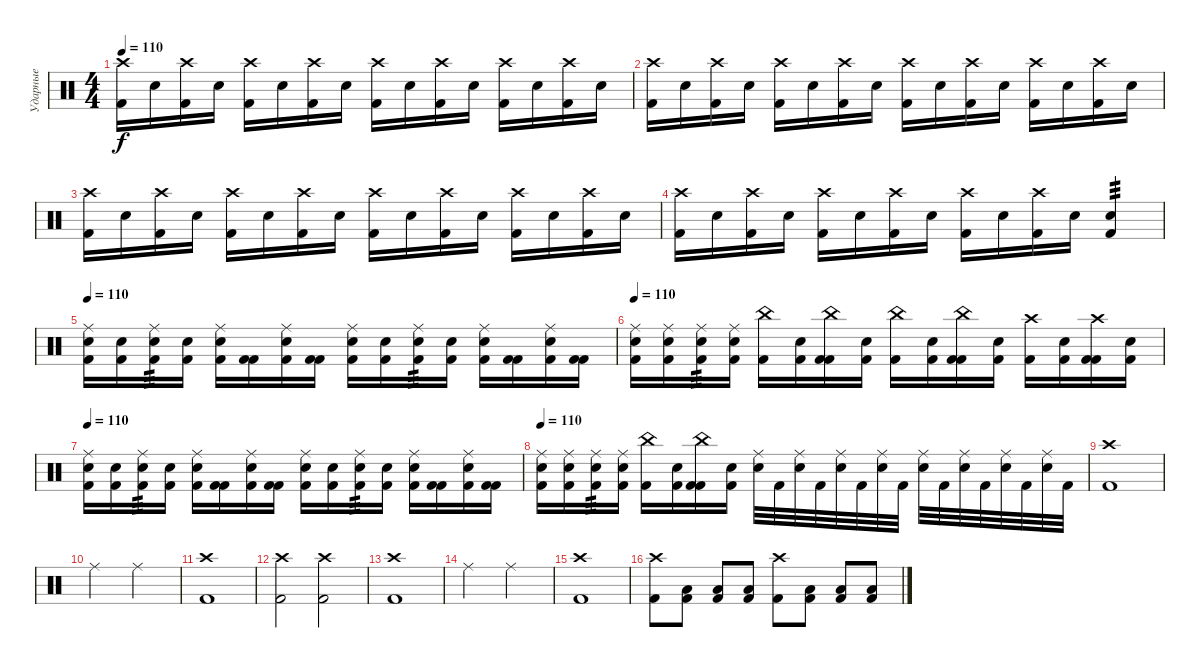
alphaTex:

\track ("Ударные" "Ударные") {instrument percussion}
\staff {score}
\articulation defaults
\ts (4 4)
\tempo 110
\clef neutral
\ks c
("Kick (hit) 2" "Crash high (hit)").16{dy f} "Snare (hit) 2".16 ("Kick (hit) 2" "Crash high (hit)").16 "Snare (hit) 2".16 ("Kick (hit) 2" "Crash high (hit)").16 "Snare (hit) 2".16 ("Kick (hit) 2" "Crash high (hit)").16 "Snare (hit) 2".16 ("Kick (hit) 2" "Crash high (hit)").16 "Snare (hit) 2".16 ("Kick (hit) 2" "Crash high (hit)").16 "Snare (hit) 2".16 ("Kick (hit) 2" "Crash high (hit)").16 "Snare (hit) 2".16 ("Kick (hit) 2" "Crash high (hit)").16 "Snare (hit) 2".16 |
("Kick (hit) 2" "Crash high (hit)").16 "Snare (hit) 2".16 ("Kick (hit) 2" "Crash high (hit)").16 "Snare (hit) 2".16 ("Kick (hit) 2" "Crash high (hit)").16 "Snare (hit) 2".16 ("Kick (hit) 2" "Crash high (hit)").16 "Snare (hit) 2".16 ("Kick (hit) 2" "Crash high (hit)").16 "Snare (hit) 2".16 ("Kick (hit) 2" "Crash high (hit)").16 "Snare (hit) 2".16 ("Kick (hit) 2" "Crash high (hit)").16 "Snare (hit) 2".16 ("Kick (hit) 2" "Crash high (hit)").16 "Snare (hit) 2".16 |
("Kick (hit) 2" "Crash high (hit)").16 "Snare (hit) 2".16 ("Kick (hit) 2" "Crash high (hit)").16 "Snare (hit) 2".16 ("Kick (hit) 2" "Crash high (hit)").16 "Snare (hit) 2".16 ("Kick (hit) 2" "Crash high (hit)").16 "Snare (hit) 2".16 ("Kick (hit) 2" "Crash high (hit)").16 "Snare (hit) 2".16 ("Kick (hit) 2" "Crash high (hit)").16 "Snare (hit) 2".16 ("Kick (hit) 2" "Crash high (hit)").16 "Snare (hit) 2".16 ("Kick (hit) 2" "Crash high (hit)").16 "Snare (hit) 2".16 |
("Kick (hit) 2" "Crash high (hit)").16 "Snare (hit) 2".16 ("Kick (hit) 2" "Crash high (hit)").16 "Snare (hit) 2".16 ("Kick (hit) 2" "Crash high (hit)").16 "Snare (hit) 2".16 ("Kick (hit) 2" "Crash high (hit)").16 "Snare (hit) 2".16 ("Kick (hit) 2" "Crash high (hit)").16 "Snare (hit) 2".16 ("Kick (hit) 2" "Crash high (hit)").16 "Snare (hit) 2".16 ("Snare (hit) 2" "Kick (hit) 2").4{tp 3} |
\tempo 110
("Snare (hit) 2" "Kick (hit) 2" "Ride (middle)").16 ("Snare (hit) 2" "Kick (hit) 2").16 ("Snare (hit) 2" "Kick (hit) 2" "Ride (middle)").16{tp 3} ("Snare (hit) 2" "Kick (hit) 2").16 ("Kick (hit) 2" "Snare (hit) 2" "Ride (middle)").16 ("Kick (hit) 2" "Kick (hit) 2").16 ("Kick (hit) 2" "Snare (hit) 2" "Ride (middle)").16 ("Kick (hit) 2" "Kick (hit) 2").16 ("Snare (hit) 2" "Kick (hit) 2" "Ride (middle)").16 ("Snare (hit) 2" "Kick (hit) 2").16 ("Snare (hit) 2" "Kick (hit) 2" "Ride (middle)").16{tp 3} ("Snare (hit) 2" "Kick (hit) 2").16 ("Kick (hit) 2" "Snare (hit) 2" "Ride (middle)").16 ("Kick (hit) 2" "Kick (hit) 2").16 ("Kick (hit) 2" "Snare (hit) 2" "Ride (middle)").16 ("Kick (hit) 2" "Kick (hit) 2").16 |
\tempo 110
("Snare (hit) 2" "Kick (hit) 2" "Ride (middle)").16 ("Snare (hit) 2" "Kick (hit) 2" "Ride (middle)").16 ("Snare (hit) 2" "Kick (hit) 2" "Ride (middle)").16{tp 3} ("Snare (hit) 2" "Kick (hit) 2" "Ride (middle)").16 ("Kick (hit) 2" "China (hit)").16 ("Kick (hit) 2" "Snare (hit) 2").16 ("Kick (hit) 2" "Kick (hit) 2" "China (hit)").16 ("Kick (hit) 2" "Snare (hit) 2").16 ("Kick (hit) 2" "China (hit)").16 ("Kick (hit) 2" "Snare (hit) 2").16 ("Kick (hit) 2" "Kick (hit) 2" "China (hit)").16 ("Kick (hit) 2" "Snare (hit) 2").16 ("Kick (hit) 2" "Crash high (hit)").16 ("Kick (hit) 2" "Snare (hit) 2").16 ("Kick (hit) 2" "Kick (hit) 2" "Crash high (hit)").16 ("Kick (hit) 2" "Snare (hit) 2").16 |
\tempo 110
("Snare (hit) 2" "Kick (hit) 2" "Ride (middle)").16 ("Snare (hit) 2" "Kick (hit) 2").16 ("Snare (hit) 2" "Kick (hit) 2" "Ride (middle)").16{tp 3} ("Snare (hit) 2" "Kick (hit) 2").16 ("Kick (hit) 2" "Snare (hit) 2" "Ride (middle)").16 ("Kick (hit) 2" "Kick (hit) 2").16 ("Kick (hit) 2" "Snare (hit) 2" "Ride (middle)").16 ("Kick (hit) 2" "Kick (hit) 2").16 ("Snare (hit) 2" "Kick (hit) 2" "Ride (middle)").16 ("Snare (hit) 2" "Kick (hit) 2").16 ("Snare (hit) 2" "Kick (hit) 2" "Ride (middle)").16{tp 3} ("Snare (hit) 2" "Kick (hit) 2").16 ("Kick (hit) 2" "Snare (hit) 2" "Ride (middle)").16 ("Kick (hit) 2" "Kick (hit) 2").16 ("Kick (hit) 2" "Snare (hit) 2" "Ride (middle)").16 ("Kick (hit) 2" "Kick (hit) 2").16 |
\tempo 110
("Snare (hit) 2" "Kick (hit) 2" "Ride (middle)").16 ("Snare (hit) 2" "Kick (hit) 2" "Ride (middle)").16 ("Snare (hit) 2" "Kick (hit) 2" "Ride (middle)").16{tp 3} ("Snare (hit) 2" "Kick (hit) 2" "Ride (middle)").16 ("Kick (hit) 2" "China (hit)").16 ("Kick (hit) 2" "Snare (hit) 2").16 ("Kick (hit) 2" "Kick (hit) 2" "China (hit)").16 ("Kick (hit) 2" "Snare (hit) 2").16 ("Ride (middle)" "Snare (hit) 2").32 "Kick (hit) 2".32 ("Ride (middle)" "Snare (hit) 2").32 "Kick (hit) 2".32 ("Ride (middle)" "Snare (hit) 2").32 "Kick (hit) 2".32 ("Ride (middle)" "Snare (hit) 2").32 "Kick (hit) 2".32 ("Ride (middle)" "Snare (hit) 2").32 "Kick (hit) 2".32 ("Ride (middle)" "Snare (hit) 2").32 "Kick (hit) 2".32 ("Ride (middle)" "Snare (hit) 2").32 "Kick (hit) 2".32 ("Ride (middle)" "Snare (hit) 2").32 "Kick (hit) 2".32 |
("Crash high (hit)" "Kick (hit) 2").1 |
"Ride (middle)".2 "Ride (middle)".2 |
("Crash high (hit)" "Kick (hit) 2").1 |
("Kick (hit) 2" "Crash high (hit)").2 ("Kick (hit) 2" "Crash high (hit)").2 |
("Crash high (hit)" "Kick (hit) 2").1 |
"Ride (middle)".2 "Ride (middle)".2 |
("Crash high (hit)" "Kick (hit) 2").1 |
("Kick (hit) 2" "Crash high (hit)").8 ("Low Tom (hit)" "Kick (hit) 2").8 ("Low Tom (hit)" "Kick (hit) 2").8 ("Low Floor Tom (hit)" "Kick (hit) 2").8 ("Crash high (hit)" "Kick (hit) 2").8 ("Low Tom (hit)" "Kick (hit) 2").8 ("Low Tom (hit)" "Kick (hit) 2").8 ("Low Floor Tom (hit)" "Kick (hit) 2").8
